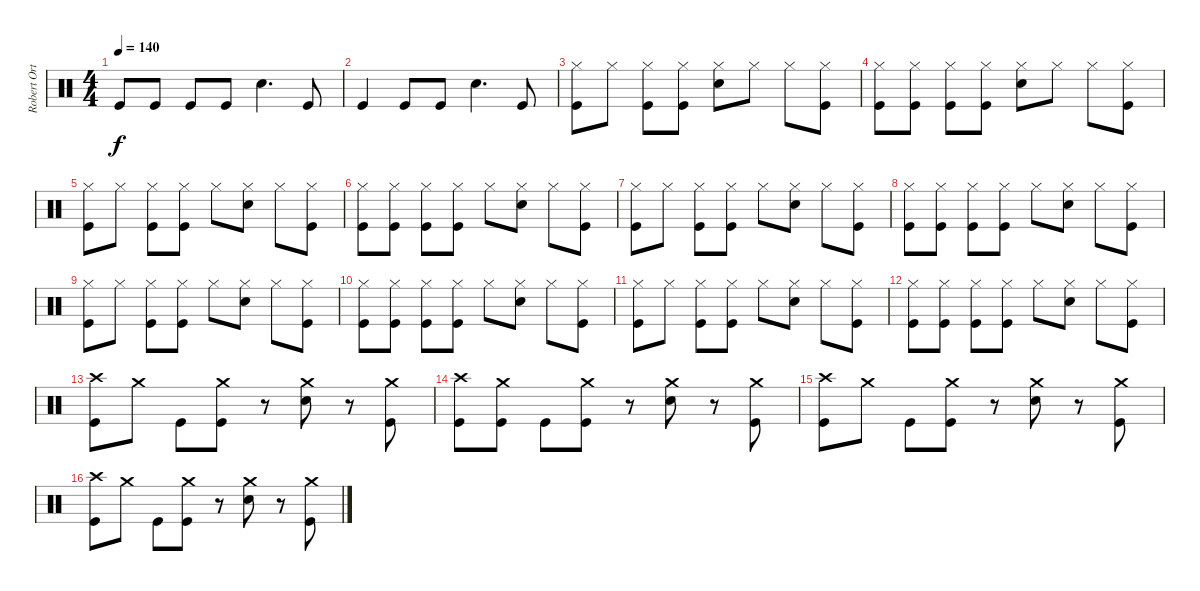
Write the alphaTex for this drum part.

\track ("Robert Ortiz" "Robert Ort") {instrument percussion}
\staff {score}
\articulation defaults
\ts (4 4)
\tempo 140
\clef neutral
\ks c "Kick (hit)".8{dy f} "Kick (hit)".8 "Kick (hit)".8 "Kick (hit)".8 "Snare (hit) 2".4{d} "Kick (hit)".8
|
"Kick (hit)".4 "Kick (hit)".8 "Kick (hit)".8 "Snare (hit) 2".4{d} "Kick (hit)".8 |
("Hi-Hat (closed)" "Kick (hit)").8 "Hi-Hat (closed)".8 ("Hi-Hat (closed)" "Kick (hit)").8 ("Hi-Hat (closed)" "Kick (hit)").8 ("Hi-Hat (closed)" "Snare (hit) 2").8 "Hi-Hat (closed)".8 "Hi-Hat (closed)".8 ("Hi-Hat (closed)" "Kick (hit)").8 |
("Hi-Hat (closed)" "Kick (hit)").8 ("Hi-Hat (closed)" "Kick (hit)").8 ("Hi-Hat (closed)" "Kick (hit)").8 ("Hi-Hat (closed)" "Kick (hit)").8 ("Hi-Hat (closed)" "Snare (hit) 2").8 "Hi-Hat (closed)".8 "Hi-Hat (closed)".8 ("Hi-Hat (closed)" "Kick (hit)").8 |
("Hi-Hat (closed)" "Kick (hit)").8 "Hi-Hat (closed)".8 ("Hi-Hat (closed)" "Kick (hit)").8 ("Hi-Hat (closed)" "Kick (hit)").8 "Hi-Hat (closed)".8 ("Hi-Hat (closed)" "Snare (hit) 2").8 "Hi-Hat (closed)".8 ("Hi-Hat (closed)" "Kick (hit)").8 |
("Hi-Hat (closed)" "Kick (hit)").8 ("Hi-Hat (closed)" "Kick (hit)").8 ("Hi-Hat (closed)" "Kick (hit)").8 ("Hi-Hat (closed)" "Kick (hit)").8 "Hi-Hat (closed)".8 ("Hi-Hat (closed)" "Snare (hit) 2").8 "Hi-Hat (closed)".8 ("Hi-Hat (closed)" "Kick (hit)").8 |
("Hi-Hat (closed)" "Kick (hit)").8 "Hi-Hat (closed)".8 ("Hi-Hat (closed)" "Kick (hit)").8 ("Hi-Hat (closed)" "Kick (hit)").8 "Hi-Hat (closed)".8 ("Hi-Hat (closed)" "Snare (hit) 2").8 "Hi-Hat (closed)".8 ("Hi-Hat (closed)" "Kick (hit)").8 |
("Hi-Hat (closed)" "Kick (hit)").8 ("Hi-Hat (closed)" "Kick (hit)").8 ("Hi-Hat (closed)" "Kick (hit)").8 ("Hi-Hat (closed)" "Kick (hit)").8 "Hi-Hat (closed)".8 ("Hi-Hat (closed)" "Snare (hit) 2").8 "Hi-Hat (closed)".8 ("Hi-Hat (closed)" "Kick (hit)").8 |
("Hi-Hat (closed)" "Kick (hit)").8 "Hi-Hat (closed)".8 ("Hi-Hat (closed)" "Kick (hit)").8 ("Hi-Hat (closed)" "Kick (hit)").8 "Hi-Hat (closed)".8 ("Hi-Hat (closed)" "Snare (hit) 2").8 "Hi-Hat (closed)".8 ("Hi-Hat (closed)" "Kick (hit)").8 |
("Hi-Hat (closed)" "Kick (hit)").8 ("Hi-Hat (closed)" "Kick (hit)").8 ("Hi-Hat (closed)" "Kick (hit)").8 ("Hi-Hat (closed)" "Kick (hit)").8 "Hi-Hat (closed)".8 ("Hi-Hat (closed)" "Snare (hit) 2").8 "Hi-Hat (closed)".8 ("Hi-Hat (closed)" "Kick (hit)").8 |
("Hi-Hat (closed)" "Kick (hit)").8 "Hi-Hat (closed)".8 ("Hi-Hat (closed)" "Kick (hit)").8 ("Hi-Hat (closed)" "Kick (hit)").8 "Hi-Hat (closed)".8 ("Hi-Hat (closed)" "Snare (hit) 2").8 "Hi-Hat (closed)".8 ("Hi-Hat (closed)" "Kick (hit)").8 |
("Hi-Hat (closed)" "Kick (hit)").8 ("Hi-Hat (closed)" "Kick (hit)").8 ("Hi-Hat (closed)" "Kick (hit)").8 ("Hi-Hat (closed)" "Kick (hit)").8 "Hi-Hat (closed)".8 ("Hi-Hat (closed)" "Snare (hit) 2").8 "Hi-Hat (closed)".8 ("Hi-Hat (closed)" "Kick (hit)").8 |
("Crash high (hit)" "Kick (hit)").8 "Crash medium (hit)".8 "Kick (hit)".8 ("Crash medium (hit)" "Kick (hit)").8 r.8 ("Crash medium (hit)" "Snare (hit) 2").8 r.8 ("Crash medium (hit)" "Kick (hit)").8 |
("Crash high (hit)" "Kick (hit)").8 ("Crash medium (hit)" "Kick (hit)").8 "Kick (hit)".8 ("Crash medium (hit)" "Kick (hit)").8 r.8 ("Crash medium (hit)" "Snare (hit) 2").8 r.8 ("Crash medium (hit)" "Kick (hit)").8 |
("Crash high (hit)" "Kick (hit)").8 "Crash medium (hit)".8 "Kick (hit)".8 ("Crash medium (hit)" "Kick (hit)").8 r.8 ("Crash medium (hit)" "Snare (hit) 2").8 r.8 ("Crash medium (hit)" "Kick (hit)").8 |
("Crash high (hit)" "Kick (hit)").8 "Crash medium (hit)".8 "Kick (hit)".8 ("Crash medium (hit)" "Kick (hit)").8 r.8 ("Crash medium (hit)" "Snare (hit) 2").8 r.8 ("Crash medium (hit)" "Kick (hit)").8
